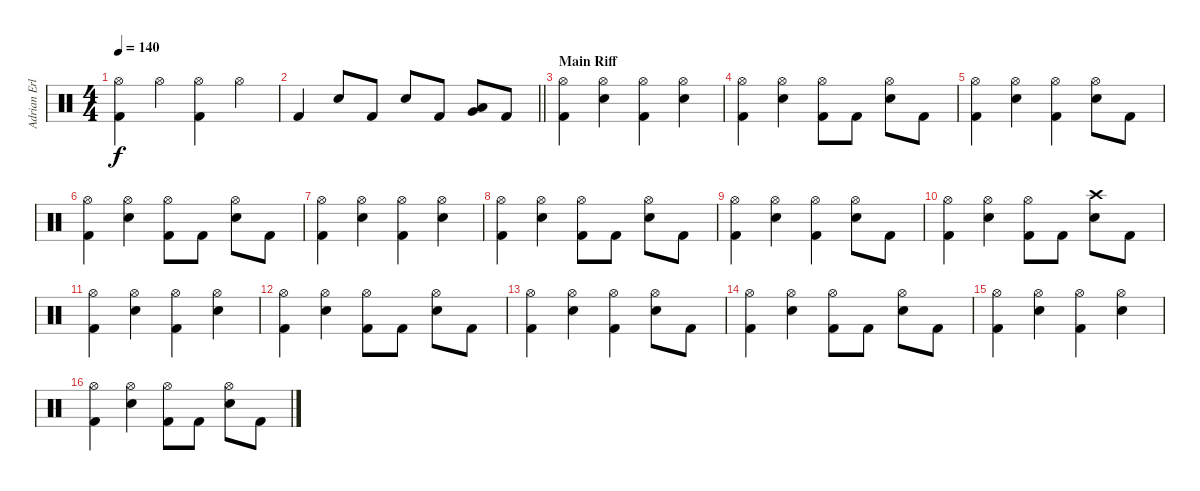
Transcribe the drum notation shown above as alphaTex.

\track ("Adrian Erlandsson" "Adrian Erl") {instrument percussion}
\staff {score}
\articulation defaults
\ts (4 4)
\tempo 140
\clef neutral
\ks c
("Hi-Hat (open)" "Kick (hit) 2").4{dy f} "Hi-Hat (open)".4 ("Hi-Hat (open)" "Kick (hit) 2").4 "Hi-Hat (open)".4 |
\barLineRight lightlight "Kick (hit) 2".4 "Snare (hit) 2".8 "Kick (hit) 2".8 "Snare (hit) 2".8 "Kick (hit) 2".8
("Low Tom (hit)" "Very Low Tom (hit)").8 "Kick (hit) 2".8 |
\section ("" "Main Riff")
("Hi-Hat (open)" "Kick (hit) 2").4 ("Hi-Hat (open)" "Snare (hit) 2").4 ("Hi-Hat (open)" "Kick (hit) 2").4 ("Hi-Hat (open)" "Snare (hit) 2").4 |
("Hi-Hat (open)" "Kick (hit) 2").4 ("Hi-Hat (open)" "Snare (hit) 2").4 ("Hi-Hat (open)" "Kick (hit) 2").8 "Kick (hit) 2".8 ("Hi-Hat (open)" "Snare (hit) 2").8 "Kick (hit) 2".8 |
("Hi-Hat (open)" "Kick (hit) 2").4 ("Hi-Hat (open)" "Snare (hit) 2").4 ("Hi-Hat (open)" "Kick (hit) 2").4 ("Hi-Hat (open)" "Snare (hit) 2").8 "Kick (hit) 2".8 |
("Hi-Hat (open)" "Kick (hit) 2").4 ("Hi-Hat (open)" "Snare (hit) 2").4 ("Hi-Hat (open)" "Kick (hit) 2").8 "Kick (hit) 2".8 ("Hi-Hat (open)" "Snare (hit) 2").8 "Kick (hit) 2".8 |
("Hi-Hat (open)" "Kick (hit) 2").4 ("Hi-Hat (open)" "Snare (hit) 2").4 ("Hi-Hat (open)" "Kick (hit) 2").4 ("Hi-Hat (open)" "Snare (hit) 2").4 |
("Hi-Hat (open)" "Kick (hit) 2").4 ("Hi-Hat (open)" "Snare (hit) 2").4 ("Hi-Hat (open)" "Kick (hit) 2").8 "Kick (hit) 2".8 ("Hi-Hat (open)" "Snare (hit) 2").8 "Kick (hit) 2".8 |
("Hi-Hat (open)" "Kick (hit) 2").4 ("Hi-Hat (open)" "Snare (hit) 2").4 ("Hi-Hat (open)" "Kick (hit) 2").4 ("Hi-Hat (open)" "Snare (hit) 2").8 "Kick (hit) 2".8 |
("Hi-Hat (open)" "Kick (hit) 2").4 ("Hi-Hat (open)" "Snare (hit) 2").4 ("Hi-Hat (open)" "Kick (hit) 2").8 "Kick (hit) 2".8 ("Crash high (hit)" "Snare (hit) 2").8 "Kick (hit) 2".8 |
("Hi-Hat (open)" "Kick (hit) 2").4 ("Hi-Hat (open)" "Snare (hit) 2").4 ("Hi-Hat (open)" "Kick (hit) 2").4 ("Hi-Hat (open)" "Snare (hit) 2").4 |
("Hi-Hat (open)" "Kick (hit) 2").4 ("Hi-Hat (open)" "Snare (hit) 2").4 ("Hi-Hat (open)" "Kick (hit) 2").8 "Kick (hit) 2".8 ("Hi-Hat (open)" "Snare (hit) 2").8 "Kick (hit) 2".8 |
("Hi-Hat (open)" "Kick (hit) 2").4 ("Hi-Hat (open)" "Snare (hit) 2").4 ("Hi-Hat (open)" "Kick (hit) 2").4 ("Hi-Hat (open)" "Snare (hit) 2").8 "Kick (hit) 2".8 |
("Hi-Hat (open)" "Kick (hit) 2").4 ("Hi-Hat (open)" "Snare (hit) 2").4 ("Hi-Hat (open)" "Kick (hit) 2").8 "Kick (hit) 2".8 ("Hi-Hat (open)" "Snare (hit) 2").8 "Kick (hit) 2".8 |
("Hi-Hat (open)" "Kick (hit) 2").4 ("Hi-Hat (open)" "Snare (hit) 2").4 ("Hi-Hat (open)" "Kick (hit) 2").4 ("Hi-Hat (open)" "Snare (hit) 2").4 |
("Hi-Hat (open)" "Kick (hit) 2").4 ("Hi-Hat (open)" "Snare (hit) 2").4 ("Hi-Hat (open)" "Kick (hit) 2").8 "Kick (hit) 2".8 ("Hi-Hat (open)" "Snare (hit) 2").8 "Kick (hit) 2".8
